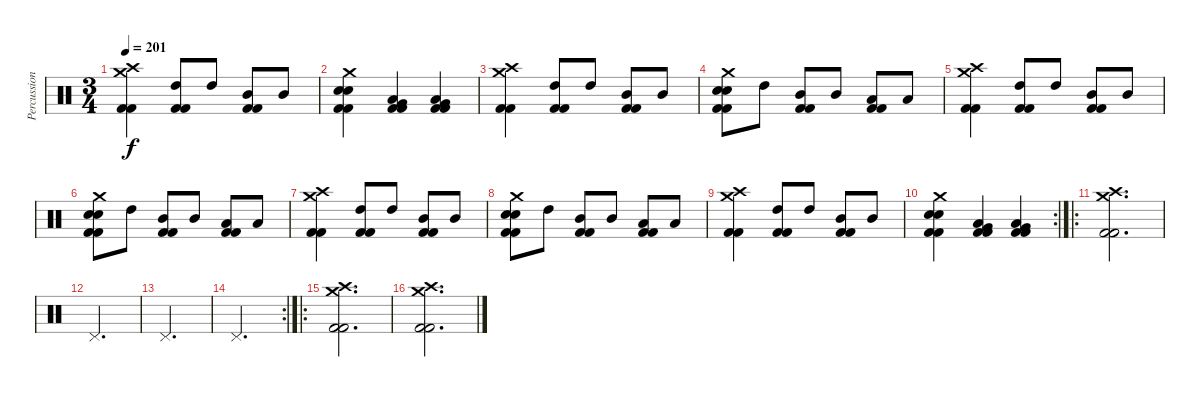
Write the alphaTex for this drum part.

\track ("Percussioni" "Percussion") {instrument percussion}
\staff {score}
\articulation defaults
\ts (3 4)
\tempo 201
\clef neutral
\ks c
("Crash medium (hit)" "Crash high (hit)" "Kick (hit) 2" "Kick (hit) 2").4{dy f} ("High Tom (hit)" "Kick (hit) 2" "Kick (hit) 2").8 "High Tom (hit)".8 ("Mid Tom (hit)" "Kick (hit) 2" "Kick (hit) 2").8 "Mid Tom (hit)".8 |
("Crash medium (hit)" "Electric Snare (hit)" "Electric Snare (hit)" "Kick (hit) 2" "Kick (hit) 2").4 ("Low Tom (hit)" "Very Low Tom (hit)" "Kick (hit) 2" "Kick (hit) 2").4 ("Low Tom (hit)" "Very Low Tom (hit)" "Kick (hit) 2" "Kick (hit) 2").4 |
("Crash medium (hit)" "Crash high (hit)" "Kick (hit) 2" "Kick (hit) 2").4 ("High Tom (hit)" "Kick (hit) 2" "Kick (hit) 2").8 "High Tom (hit)".8 ("Mid Tom (hit)" "Kick (hit) 2" "Kick (hit) 2").8 "Mid Tom (hit)".8 |
("Crash medium (hit)" "Electric Snare (hit)" "Electric Snare (hit)" "Kick (hit) 2" "Kick (hit) 2").8 "High Tom (hit)".8 ("Mid Tom (hit)" "Kick (hit) 2" "Kick (hit) 2").8 "Mid Tom (hit)".8 ("Low Tom (hit)" "Kick (hit) 2" "Kick (hit) 2").8 "Low Tom (hit)".8 |
("Crash medium (hit)" "Crash high (hit)" "Kick (hit) 2" "Kick (hit) 2").4 ("High Tom (hit)" "Kick (hit) 2" "Kick (hit) 2").8 "High Tom (hit)".8 ("Mid Tom (hit)" "Kick (hit) 2" "Kick (hit) 2").8 "Mid Tom (hit)".8 |
("Crash medium (hit)" "Electric Snare (hit)" "Electric Snare (hit)" "Kick (hit) 2" "Kick (hit) 2").8 "High Tom (hit)".8 ("Mid Tom (hit)" "Kick (hit) 2" "Kick (hit) 2").8 "Mid Tom (hit)".8 ("Low Tom (hit)" "Kick (hit) 2" "Kick (hit) 2").8 "Low Tom (hit)".8 |
("Crash medium (hit)" "Crash high (hit)" "Kick (hit) 2" "Kick (hit) 2").4 ("High Tom (hit)" "Kick (hit) 2" "Kick (hit) 2").8 "High Tom (hit)".8 ("Mid Tom (hit)" "Kick (hit) 2" "Kick (hit) 2").8 "Mid Tom (hit)".8 |
("Crash medium (hit)" "Electric Snare (hit)" "Electric Snare (hit)" "Kick (hit) 2" "Kick (hit) 2").8 "High Tom (hit)".8 ("Mid Tom (hit)" "Kick (hit) 2" "Kick (hit) 2").8 "Mid Tom (hit)".8 ("Low Tom (hit)" "Kick (hit) 2" "Kick (hit) 2").8 "Low Tom (hit)".8 |
("Crash medium (hit)" "Crash high (hit)" "Kick (hit) 2" "Kick (hit) 2").4 ("High Tom (hit)" "Kick (hit) 2" "Kick (hit) 2").8 "High Tom (hit)".8 ("Mid Tom (hit)" "Kick (hit) 2" "Kick (hit) 2").8 "Mid Tom (hit)".8 |
\rc 2
("Crash medium (hit)" "Electric Snare (hit)" "Electric Snare (hit)" "Kick (hit) 2" "Kick (hit) 2").4 ("Low Tom (hit)" "Very Low Tom (hit)" "Kick (hit) 2" "Kick (hit) 2").4 ("Low Tom (hit)" "Very Low Tom (hit)" "Kick (hit) 2" "Kick (hit) 2").4 |
\ro
("Crash medium (hit)" "Crash high (hit)" "Kick (hit) 2" "Kick (hit) 2").2{d} |
"Pedal Hi-Hat (hit)".2{d} |
"Pedal Hi-Hat (hit)".2{d} |
\rc 2 "Pedal Hi-Hat (hit)".2{d}
|
\ro
("Crash medium (hit)" "Crash high (hit)" "Kick (hit) 2" "Kick (hit) 2").2{d} |
("Crash medium (hit)" "Crash high (hit)" "Kick (hit) 2" "Kick (hit) 2").2{d}
